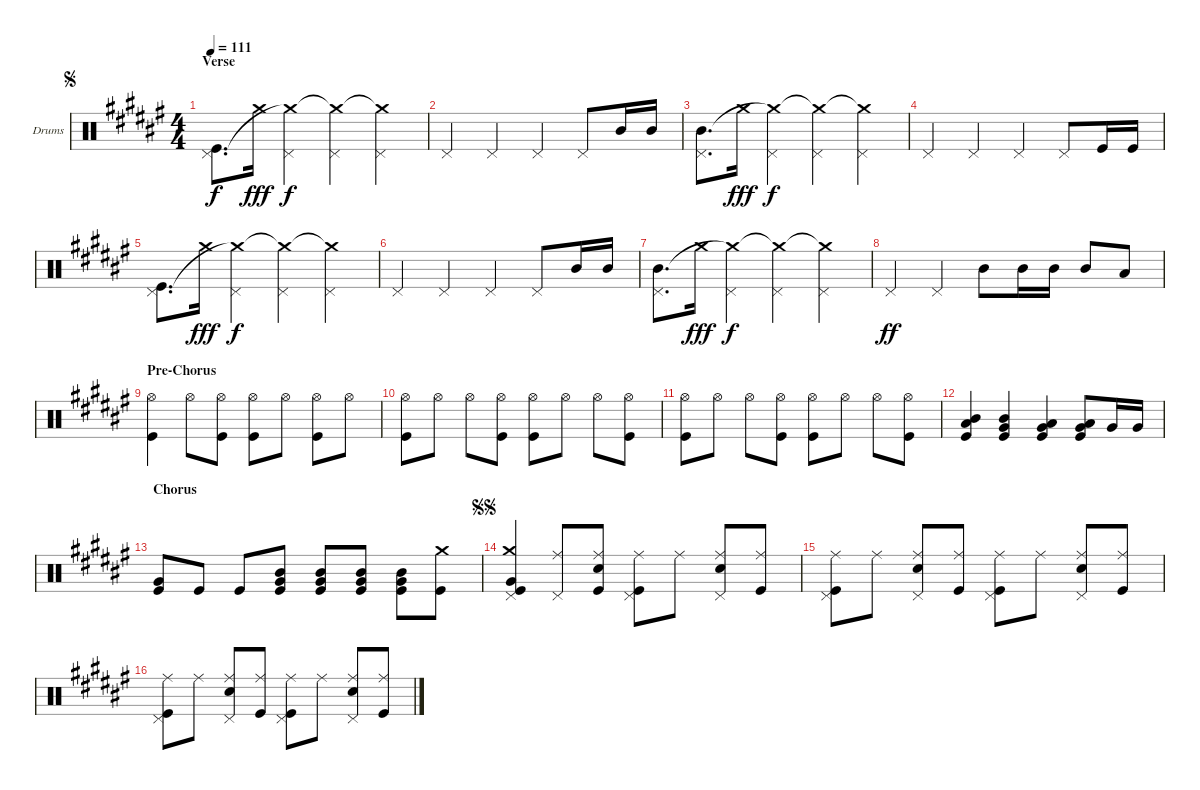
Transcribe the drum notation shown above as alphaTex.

\bracketExtendMode groupsimilarinstruments
\useSystemSignSeparator
\multiTrackTrackNamePolicy allsystems
\firstSystemTrackNameOrientation horizontal
\otherSystemsTrackNameOrientation horizontal
\track ("Drums" "Drums") {instrument percussion}
\staff {score}
\articulation defaults
\ts (4 4)
\section ("" "Verse")
\jump segno
\tempo 111
\clef neutral
\ks f#
("Kick (hit)" "Pedal Hi-Hat (hit)").8{d dy f} "Crash medium (hit)".16{dy fff} ("Pedal Hi-Hat (hit)" "Crash medium (hit)"{t}).4{dy f} ("Pedal Hi-Hat (hit)" "Crash medium (hit)"{t}).4 ("Pedal Hi-Hat (hit)" "Crash medium (hit)"{t}).4 |
"Pedal Hi-Hat (hit)".4 "Pedal Hi-Hat (hit)".4 "Pedal Hi-Hat (hit)".4 "Pedal Hi-Hat (hit)".8 "Mid Tom (hit)".16 "Mid Tom (hit)".16 |
("Pedal Hi-Hat (hit)" "Mid Tom (hit)").8{d} "Crash medium (hit)".16{dy fff} ("Pedal Hi-Hat (hit)" "Crash medium (hit)"{t}).4{dy f} ("Pedal Hi-Hat (hit)" "Crash medium (hit)"{t}).4 ("Pedal Hi-Hat (hit)" "Crash medium (hit)"{t}).4 |
"Pedal Hi-Hat (hit)".4 "Pedal Hi-Hat (hit)".4 "Pedal Hi-Hat (hit)".4 "Pedal Hi-Hat (hit)".8 "Kick (hit)".16 "Kick (hit)".16 |
("Kick (hit)" "Pedal Hi-Hat (hit)").8{d} "Crash medium (hit)".16{dy fff} ("Pedal Hi-Hat (hit)" "Crash medium (hit)"{t}).4{dy f} ("Pedal Hi-Hat (hit)" "Crash medium (hit)"{t}).4 ("Pedal Hi-Hat (hit)" "Crash medium (hit)"{t}).4 |
"Pedal Hi-Hat (hit)".4 "Pedal Hi-Hat (hit)".4 "Pedal Hi-Hat (hit)".4 "Pedal Hi-Hat (hit)".8 "Mid Tom (hit)".16 "Mid Tom (hit)".16 |
("Pedal Hi-Hat (hit)" "Mid Tom (hit)").8{d} "Crash medium (hit)".16{dy fff} ("Pedal Hi-Hat (hit)" "Crash medium (hit)"{t}).4{dy f} ("Pedal Hi-Hat (hit)" "Crash medium (hit)"{t}).4 ("Pedal Hi-Hat (hit)" "Crash medium (hit)"{t}).4 |
"Pedal Hi-Hat (hit)".4{dy ff} "Pedal Hi-Hat (hit)".4 "Mid Tom (hit)".8 "Mid Tom (hit)".16 "Mid Tom (hit)".16 "Mid Tom (hit)".8 "Low Tom (hit)".8 |
\section ("" "Pre-Chorus")
("Kick (hit)" "Hi-Hat (open)").4 "Hi-Hat (open)".8 ("Hi-Hat (open)" "Kick (hit)").8 ("Hi-Hat (open)" "Kick (hit)").8 "Hi-Hat (open)".8 ("Hi-Hat (open)" "Kick (hit)").8 "Hi-Hat (open)".8 |
("Hi-Hat (open)" "Kick (hit)").8 "Hi-Hat (open)".8 "Hi-Hat (open)".8 ("Kick (hit)" "Hi-Hat (open)").8 ("Hi-Hat (open)" "Kick (hit)").8 "Hi-Hat (open)".8 "Hi-Hat (open)".8 ("Hi-Hat (open)" "Kick (hit)").8 |
("Kick (hit)" "Hi-Hat (open)").8 "Hi-Hat (open)".8 "Hi-Hat (open)".8 ("Kick (hit)" "Hi-Hat (open)").8 ("Hi-Hat (open)" "Kick (hit)").8 "Hi-Hat (open)".8 "Hi-Hat (open)".8 ("Kick (hit)" "Hi-Hat (open)").8 |
("Mid Tom (hit)" "Kick (hit)" "Low Tom (hit)").4 ("Kick (hit)" "Very Low Tom (hit)" "Mid Tom (hit)").4 ("Very Low Tom (hit)" "Kick (hit)" "Low Tom (hit)").4 ("Kick (hit)" "Very Low Tom (hit)" "Low Tom (hit)").8 "Very Low Tom (hit)".16 "Very Low Tom (hit)".16 |
\section ("" "Chorus")
("Kick (hit)" "Very Low Tom (hit)").8 "Kick (hit)".8 "Kick (hit)".8 ("Very Low Tom (hit)" "Mid Tom (hit)" "Kick (hit)").8 ("Very Low Tom (hit)" "Mid Tom (hit)" "Kick (hit)").8 ("Very Low Tom (hit)" "Mid Tom (hit)" "Kick (hit)").8 ("Very Low Tom (hit)" "Mid Tom (hit)" "Kick (hit)").8 ("Crash medium (hit)" "Kick (hit)").8 |
\jump segnosegno
("Very Low Tom (hit)" "Kick (hit)" "Crash medium (hit)" "Pedal Hi-Hat (hit)").4 ("Ride (middle)" "Pedal Hi-Hat (hit)").8 ("Snare (hit) 2" "Kick (hit)" "Ride (middle)").8 ("Kick (hit)" "Ride (middle)" "Pedal Hi-Hat (hit)").8 "Ride (middle)".8 ("Snare (hit) 2" "Ride (middle)" "Pedal Hi-Hat (hit)").8 ("Kick (hit)" "Ride (middle)").8 |
("Kick (hit)" "Ride (middle)" "Pedal Hi-Hat (hit)").8 "Ride (middle)".8 ("Snare (hit) 2" "Ride (middle)" "Pedal Hi-Hat (hit)").8 ("Kick (hit)" "Ride (middle)").8 ("Kick (hit)" "Ride (middle)" "Pedal Hi-Hat (hit)").8 "Ride (middle)".8 ("Snare (hit) 2" "Ride (middle)" "Pedal Hi-Hat (hit)").8 ("Kick (hit)" "Ride (middle)").8 |
("Kick (hit)" "Ride (middle)" "Pedal Hi-Hat (hit)").8 "Ride (middle)".8 ("Snare (hit) 2" "Ride (middle)" "Pedal Hi-Hat (hit)").8 ("Kick (hit)" "Ride (middle)").8 ("Kick (hit)" "Ride (middle)" "Pedal Hi-Hat (hit)").8 "Ride (middle)".8 ("Snare (hit) 2" "Ride (middle)" "Pedal Hi-Hat (hit)").8 ("Kick (hit)" "Ride (middle)").8
